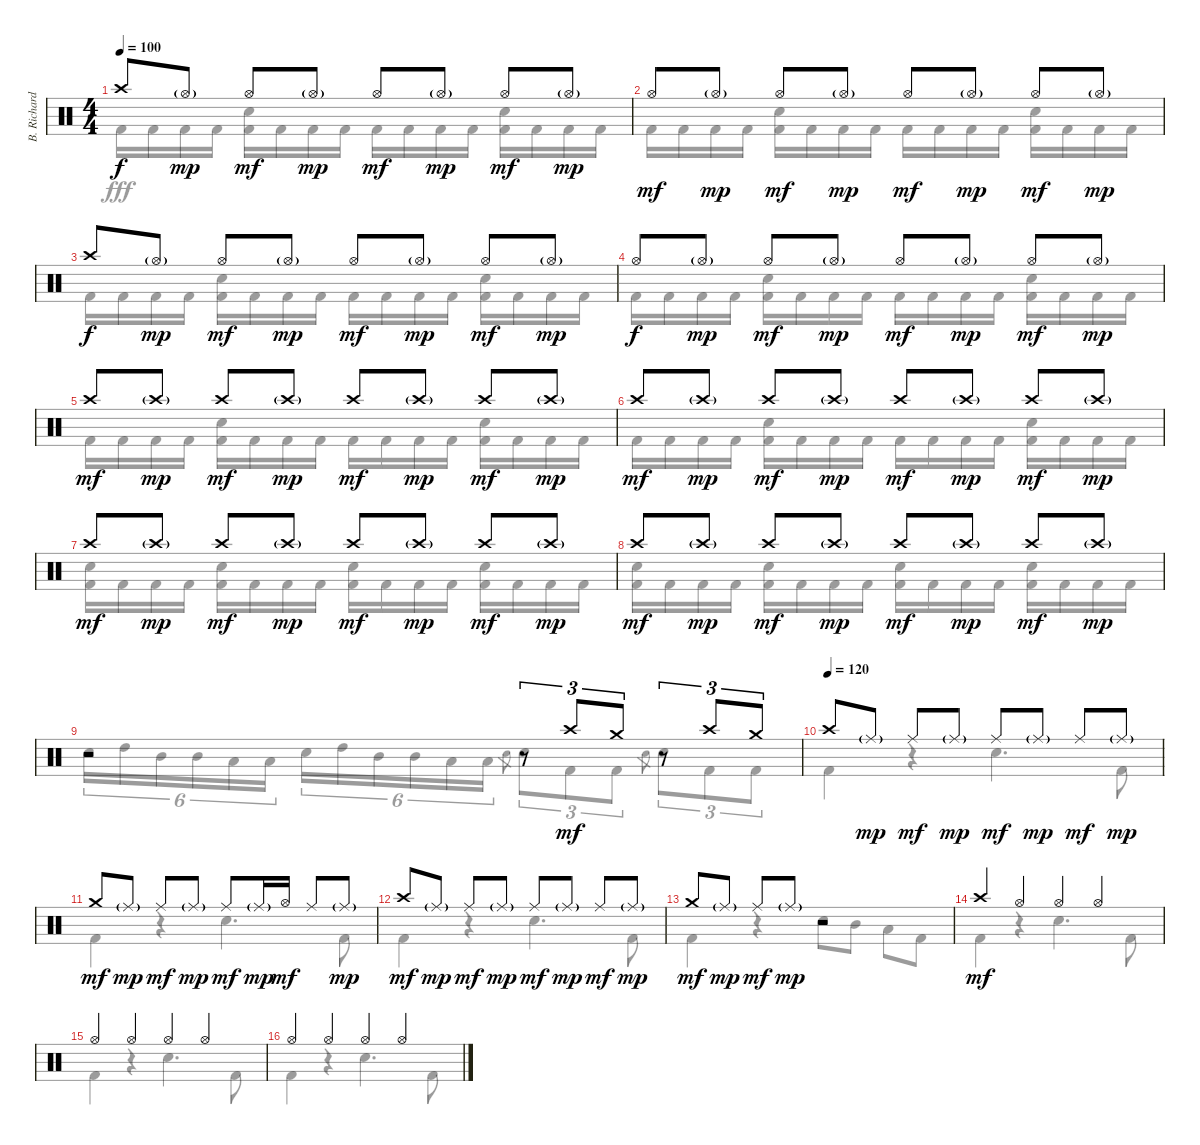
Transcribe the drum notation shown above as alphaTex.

\track ("B. Richardson Drums" "B. Richard") {instrument percussion}
\staff {score}
\articulation defaults
\voice
\ts (4 4)
\tempo 100
\clef neutral
\ks c "Crash high (hit)".8{dy f} "Hi-Hat (open)"{g}.8{dy mp} "Hi-Hat (open)".8{dy mf} "Hi-Hat (open)"{g}.8{dy mp} "Hi-Hat (open)".8{dy mf} "Hi-Hat (open)"{g}.8{dy mp} "Hi-Hat (open)".8{dy mf} "Hi-Hat (open)"{g}.8{dy mp}
|
"Hi-Hat (open)".8{dy mf} "Hi-Hat (open)"{g}.8{dy mp} "Hi-Hat (open)".8{dy mf} "Hi-Hat (open)"{g}.8{dy mp} "Hi-Hat (open)".8{dy mf} "Hi-Hat (open)"{g}.8{dy mp} "Hi-Hat (open)".8{dy mf} "Hi-Hat (open)"{g}.8{dy mp} |
"Crash high (hit)".8{dy f} "Hi-Hat (open)"{g}.8{dy mp} "Hi-Hat (open)".8{dy mf} "Hi-Hat (open)"{g}.8{dy mp} "Hi-Hat (open)".8{dy mf} "Hi-Hat (open)"{g}.8{dy mp} "Hi-Hat (open)".8{dy mf} "Hi-Hat (open)"{g}.8{dy mp} |
"Hi-Hat (open)".8{dy f} "Hi-Hat (open)"{g}.8{dy mp} "Hi-Hat (open)".8{dy mf} "Hi-Hat (open)"{g}.8{dy mp} "Hi-Hat (open)".8{dy mf} "Hi-Hat (open)"{g}.8{dy mp} "Hi-Hat (open)".8{dy mf} "Hi-Hat (open)"{g}.8{dy mp} |
"Crash high (hit)".8{dy mf} "Crash high (hit)"{g}.8{dy mp} "Crash high (hit)".8{dy mf} "Crash high (hit)"{g}.8{dy mp} "Crash high (hit)".8{dy mf} "Crash high (hit)"{g}.8{dy mp} "Crash high (hit)".8{dy mf} "Crash high (hit)"{g}.8{dy mp} |
"Crash high (hit)".8{dy mf} "Crash high (hit)"{g}.8{dy mp} "Crash high (hit)".8{dy mf} "Crash high (hit)"{g}.8{dy mp} "Crash high (hit)".8{dy mf} "Crash high (hit)"{g}.8{dy mp} "Crash high (hit)".8{dy mf} "Crash high (hit)"{g}.8{dy mp} |
"Crash high (hit)".8{dy mf} "Crash high (hit)"{g}.8{dy mp} "Crash high (hit)".8{dy mf} "Crash high (hit)"{g}.8{dy mp} "Crash high (hit)".8{dy mf} "Crash high (hit)"{g}.8{dy mp} "Crash high (hit)".8{dy mf} "Crash high (hit)"{g}.8{dy mp} |
"Crash high (hit)".8{dy mf} "Crash high (hit)"{g}.8{dy mp} "Crash high (hit)".8{dy mf} "Crash high (hit)"{g}.8{dy mp} "Crash high (hit)".8{dy mf} "Crash high (hit)"{g}.8{dy mp} "Crash high (hit)".8{dy mf} "Crash high (hit)"{g}.8{dy mp} |
r.2 r.8{tu (3 2)} "Crash high (hit)".8{tu (3 2) dy mf} "Crash medium (hit)".8{tu (3 2)} r.8{tu (3 2)} "Crash high (hit)".8{tu (3 2)} "Crash medium (hit)".8{tu (3 2)} |
\tempo (120)
"Crash high (hit)".8 "Ride (middle)"{g}.8{dy mp} "Ride (middle)".8{dy mf} "Ride (middle)"{g}.8{dy mp} "Ride (middle)".8{dy mf} "Ride (middle)"{g}.8{dy mp} "Ride (middle)".8{dy mf} "Ride (middle)"{g}.8{dy mp} |
"Crash medium (hit)".8{dy mf} "Ride (middle)"{g}.8{dy mp} "Ride (middle)".8{dy mf} "Ride (middle)"{g}.8{dy mp} "Ride (middle)".8{dy mf} "Ride (middle)"{g}.16{dy mp} "Hi-Hat (open)".16{dy mf} "Ride (middle)".8 "Ride (middle)"{g}.8{dy mp} |
"Crash high (hit)".8{dy mf} "Ride (middle)"{g}.8{dy mp} "Ride (middle)".8{dy mf} "Ride (middle)"{g}.8{dy mp} "Ride (middle)".8{dy mf} "Ride (middle)"{g}.8{dy mp} "Ride (middle)".8{dy mf} "Ride (middle)"{g}.8{dy mp} |
"Crash medium (hit)".8{dy mf} "Ride (middle)"{g}.8{dy mp} "Ride (middle)".8{dy mf} "Ride (middle)"{g}.8{dy mp} r.2 |
"Crash high (hit)".4{dy mf} "Hi-Hat (open)".4 "Hi-Hat (open)".4 "Hi-Hat (open)".4 |
"Hi-Hat (open)".4 "Hi-Hat (open)".4 "Hi-Hat (open)".4 "Hi-Hat (open)".4 |
"Hi-Hat (open)".4 "Hi-Hat (open)".4 "Hi-Hat (open)".4 "Hi-Hat (open)".4
\voice
\clef neutral
\ottava regular
\simile none
\ks c "Kick (hit) 2".16{dy fff} "Kick (hit) 2".16 "Kick (hit) 2".16 "Kick (hit) 2".16
("Electric Snare (hit)" "Kick (hit) 2").16 "Kick (hit) 2".16 "Kick (hit) 2".16 "Kick (hit) 2".16 "Kick (hit) 2".16 "Kick (hit) 2".16 "Kick (hit) 2".16 "Kick (hit) 2".16 ("Electric Snare (hit)" "Kick (hit) 2").16 "Kick (hit) 2".16 "Kick (hit) 2".16 "Kick (hit) 2".16 |
"Kick (hit) 2".16 "Kick (hit) 2".16 "Kick (hit) 2".16 "Kick (hit) 2".16 ("Electric Snare (hit)" "Kick (hit) 2").16 "Kick (hit) 2".16 "Kick (hit) 2".16 "Kick (hit) 2".16 "Kick (hit) 2".16 "Kick (hit) 2".16 "Kick (hit) 2".16 "Kick (hit) 2".16 ("Electric Snare (hit)" "Kick (hit) 2").16 "Kick (hit) 2".16 "Kick (hit) 2".16 "Kick (hit) 2".16 |
"Kick (hit) 2".16 "Kick (hit) 2".16 "Kick (hit) 2".16 "Kick (hit) 2".16 ("Electric Snare (hit)" "Kick (hit) 2").16 "Kick (hit) 2".16 "Kick (hit) 2".16 "Kick (hit) 2".16 "Kick (hit) 2".16 "Kick (hit) 2".16 "Kick (hit) 2".16 "Kick (hit) 2".16 ("Electric Snare (hit)" "Kick (hit) 2").16 "Kick (hit) 2".16 "Kick (hit) 2".16 "Kick (hit) 2".16 |
"Kick (hit) 2".16 "Kick (hit) 2".16 "Kick (hit) 2".16 "Kick (hit) 2".16 ("Electric Snare (hit)" "Kick (hit) 2").16 "Kick (hit) 2".16 "Kick (hit) 2".16 "Kick (hit) 2".16 "Kick (hit) 2".16 "Kick (hit) 2".16 "Kick (hit) 2".16 "Kick (hit) 2".16 ("Electric Snare (hit)" "Kick (hit) 2").16 "Kick (hit) 2".16 "Kick (hit) 2".16 "Kick (hit) 2".16 |
"Kick (hit) 2".16 "Kick (hit) 2".16 "Kick (hit) 2".16 "Kick (hit) 2".16 ("Electric Snare (hit)" "Kick (hit) 2").16 "Kick (hit) 2".16 "Kick (hit) 2".16 "Kick (hit) 2".16 "Kick (hit) 2".16 "Kick (hit) 2".16 "Kick (hit) 2".16 "Kick (hit) 2".16 ("Electric Snare (hit)" "Kick (hit) 2").16 "Kick (hit) 2".16 "Kick (hit) 2".16 "Kick (hit) 2".16 |
"Kick (hit) 2".16 "Kick (hit) 2".16 "Kick (hit) 2".16 "Kick (hit) 2".16 ("Electric Snare (hit)" "Kick (hit) 2").16 "Kick (hit) 2".16 "Kick (hit) 2".16 "Kick (hit) 2".16 "Kick (hit) 2".16 "Kick (hit) 2".16 "Kick (hit) 2".16 "Kick (hit) 2".16 ("Electric Snare (hit)" "Kick (hit) 2").16 "Kick (hit) 2".16 "Kick (hit) 2".16 "Kick (hit) 2".16 |
("Electric Snare (hit)" "Kick (hit) 2").16 "Kick (hit) 2".16 "Kick (hit) 2".16 "Kick (hit) 2".16 ("Electric Snare (hit)" "Kick (hit) 2").16 "Kick (hit) 2".16 "Kick (hit) 2".16 "Kick (hit) 2".16 ("Electric Snare (hit)" "Kick (hit) 2").16 "Kick (hit) 2".16 "Kick (hit) 2".16 "Kick (hit) 2".16 ("Electric Snare (hit)" "Kick (hit) 2").16 "Kick (hit) 2".16 "Kick (hit) 2".16 "Kick (hit) 2".16 |
("Electric Snare (hit)" "Kick (hit) 2").16 "Kick (hit) 2".16 "Kick (hit) 2".16 "Kick (hit) 2".16 ("Electric Snare (hit)" "Kick (hit) 2").16 "Kick (hit) 2".16 "Kick (hit) 2".16 "Kick (hit) 2".16 ("Electric Snare (hit)" "Kick (hit) 2").16 "Kick (hit) 2".16 "Kick (hit) 2".16 "Kick (hit) 2".16 ("Electric Snare (hit)" "Kick (hit) 2").16 "Kick (hit) 2".16 "Kick (hit) 2".16 "Kick (hit) 2".16 |
"Electric Snare (hit)".16{tu (6 4)} "High Tom (hit)".16{tu (6 4)} "Mid Tom (hit)".16{tu (6 4)} "Mid Tom (hit)".16{tu (6 4)} "Low Tom (hit)".16{tu (6 4)} "Low Tom (hit)".16{tu (6 4)} "Electric Snare (hit)".16{tu (6 4)} "High Tom (hit)".16{tu (6 4)} "Mid Tom (hit)".16{tu (6 4)} "Mid Tom (hit)".16{tu (6 4)} "Low Tom (hit)".16{tu (6 4)} "Low Tom (hit)".16{tu (6 4)} "Electric Snare (hit)".8{gr} "Electric Snare (hit)".8{tu (3 2)} "Kick (hit) 2".8{tu (3 2)} "Kick (hit) 2".8{tu (3 2)} "Electric Snare (hit)".8{gr} "Electric Snare (hit)".8{tu (3 2)} "Kick (hit) 2".8{tu (3 2)} "Kick (hit) 2".8{tu (3 2)} |
"Kick (hit) 2".4 r.4 "Electric Snare (hit)".4{d} "Kick (hit) 2".8 |
"Kick (hit) 2".4 r.4 "Electric Snare (hit)".4{d} "Kick (hit) 2".8 |
"Kick (hit) 2".4 r.4 "Electric Snare (hit)".4{d} "Kick (hit) 2".8 |
"Kick (hit) 2".4 r.4 "Electric Snare (hit)".8 "Mid Tom (hit)".8 "Low Tom (hit)".8 "Kick (hit) 2".8 |
"Kick (hit) 2".4 r.4 "Electric Snare (hit)".4{d} "Kick (hit) 2".8 |
"Kick (hit) 2".4 r.4 "Electric Snare (hit)".4{d} "Kick (hit) 2".8 |
"Kick (hit) 2".4 r.4 "Electric Snare (hit)".4{d} "Kick (hit) 2".8
